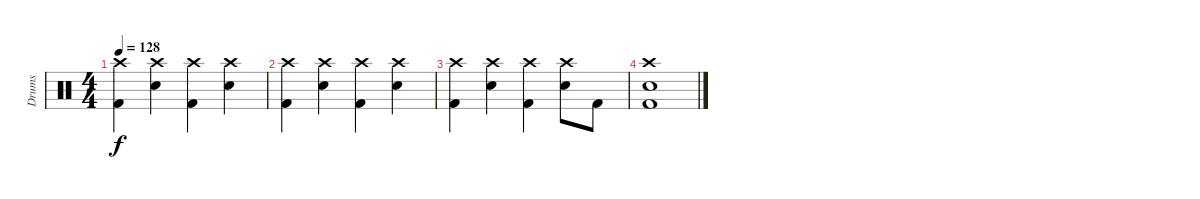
\track ("Drums" "Drums") {instrument percussion}
\staff {score}
\articulation defaults
\ts (4 4)
\tempo 128
\clef neutral
\ks c
("Crash high (hit)" "Kick (hit) 2").4{dy f} ("Crash high (hit)" "Snare (hit) 2").4 ("Crash high (hit)" "Kick (hit) 2").4 ("Crash high (hit)" "Snare (hit) 2").4 |
("Crash high (hit)" "Kick (hit) 2").4 ("Crash high (hit)" "Snare (hit) 2").4 ("Crash high (hit)" "Kick (hit) 2").4 ("Crash high (hit)" "Snare (hit) 2").4 |
("Crash high (hit)" "Kick (hit) 2").4 ("Crash high (hit)" "Snare (hit) 2").4 ("Crash high (hit)" "Kick (hit) 2").4 ("Crash high (hit)" "Snare (hit) 2").8 "Kick (hit) 2".8 |
("Crash high (hit)" "Snare (hit) 2" "Kick (hit) 2").1
